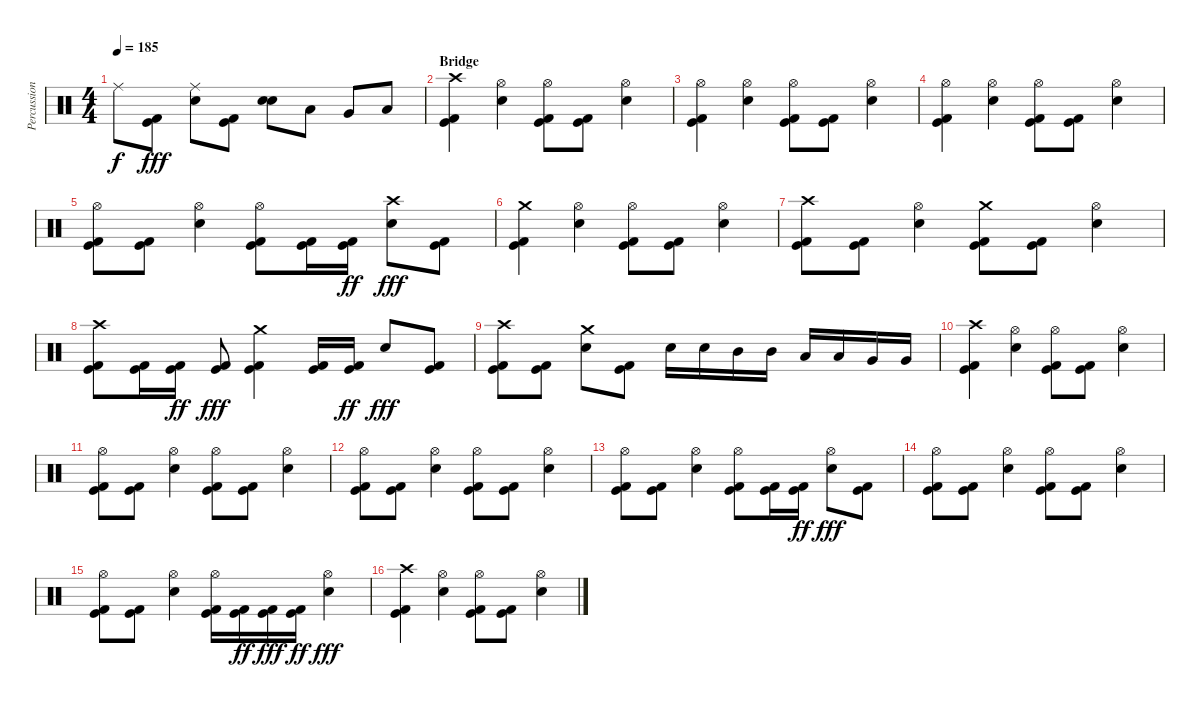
\track ("Percussion" "Percussion") {instrument percussion}
\staff {score}
\articulation defaults
\ts (4 4)
\tempo 185
\clef neutral
\ks c "Ride (middle)".8{dy f}
("Kick (hit)" "Kick (hit) 2").8{dy fff} ("Ride (middle)" "Snare (hit) 2").8 ("Kick (hit)" "Kick (hit) 2").8 ("Snare (hit) 2" "Snare (hit) 2").8{bu 480} "Low Tom (hit)".8 "Very Low Tom (hit)".8 "Low Tom (hit)".8 |
\section ("" "Bridge")
("Crash high (hit)" "Kick (hit)" "Kick (hit) 2").4 ("Hi-Hat (open)" "Snare (hit) 2").4 ("Hi-Hat (open)" "Kick (hit)" "Kick (hit) 2").8 ("Kick (hit)" "Kick (hit) 2").8 ("Hi-Hat (open)" "Snare (hit) 2").4 |
("Hi-Hat (open)" "Kick (hit)" "Kick (hit) 2").4 ("Hi-Hat (open)" "Snare (hit) 2").4 ("Hi-Hat (open)" "Kick (hit)" "Kick (hit) 2").8 ("Kick (hit)" "Kick (hit) 2").8 ("Hi-Hat (open)" "Snare (hit) 2").4 |
("Hi-Hat (open)" "Kick (hit)" "Kick (hit) 2").4 ("Hi-Hat (open)" "Snare (hit) 2").4 ("Hi-Hat (open)" "Kick (hit)" "Kick (hit) 2").8 ("Kick (hit)" "Kick (hit) 2").8 ("Hi-Hat (open)" "Snare (hit) 2").4 |
("Hi-Hat (open)" "Kick (hit)" "Kick (hit) 2").8 ("Kick (hit)" "Kick (hit) 2").8 ("Hi-Hat (open)" "Snare (hit) 2").4 ("Hi-Hat (open)" "Kick (hit)" "Kick (hit) 2").8 ("Kick (hit)" "Kick (hit) 2").16 ("Kick (hit)" "Kick (hit) 2").16{dy ff} ("Crash high (hit)" "Snare (hit) 2").8{dy fff} ("Kick (hit)" "Kick (hit) 2").8 |
("Crash medium (hit)" "Kick (hit)" "Kick (hit) 2").4 ("Hi-Hat (open)" "Snare (hit) 2").4 ("Hi-Hat (open)" "Kick (hit)" "Kick (hit) 2").8 ("Kick (hit)" "Kick (hit) 2").8 ("Hi-Hat (open)" "Snare (hit) 2").4 |
("Crash high (hit)" "Kick (hit)" "Kick (hit) 2").8 ("Kick (hit)" "Kick (hit) 2").8 ("Hi-Hat (open)" "Snare (hit) 2").4 ("Crash medium (hit)" "Kick (hit)" "Kick (hit) 2").8 ("Kick (hit)" "Kick (hit) 2").8 ("Hi-Hat (open)" "Snare (hit) 2").4 |
("Crash high (hit)" "Kick (hit)" "Kick (hit) 2").8 ("Kick (hit)" "Kick (hit) 2").16 ("Kick (hit)" "Kick (hit) 2").16{dy ff} ("Kick (hit)" "Kick (hit) 2").8{dy fff} ("Crash medium (hit)" "Kick (hit)" "Kick (hit) 2").4 ("Kick (hit)" "Kick (hit) 2").16 ("Kick (hit)" "Kick (hit) 2").16{dy ff} "Snare (hit) 2".8{dy fff} ("Kick (hit)" "Kick (hit) 2").8 |
("Crash high (hit)" "Kick (hit)" "Kick (hit) 2").8 ("Kick (hit)" "Kick (hit) 2").8 ("Crash medium (hit)" "Snare (hit) 2").8 ("Kick (hit)" "Kick (hit) 2").8 "Snare (hit) 2".16 "Snare (hit) 2".16 "Mid Tom (hit)".16 "Mid Tom (hit)".16 "Low Tom (hit)".16 "Low Tom (hit)".16 "Very Low Tom (hit)".16 "Very Low Tom (hit)".16 |
("Crash high (hit)" "Kick (hit)" "Kick (hit) 2").4 ("Hi-Hat (open)" "Snare (hit) 2").4 ("Hi-Hat (open)" "Kick (hit)" "Kick (hit) 2").8 ("Kick (hit)" "Kick (hit) 2").8 ("Hi-Hat (open)" "Snare (hit) 2").4 |
("Hi-Hat (open)" "Kick (hit)" "Kick (hit) 2").8 ("Kick (hit)" "Kick (hit) 2").8 ("Hi-Hat (open)" "Snare (hit) 2").4 ("Hi-Hat (open)" "Kick (hit)" "Kick (hit) 2").8 ("Kick (hit)" "Kick (hit) 2").8 ("Hi-Hat (open)" "Snare (hit) 2").4 |
("Hi-Hat (open)" "Kick (hit)" "Kick (hit) 2").8 ("Kick (hit)" "Kick (hit) 2").8 ("Hi-Hat (open)" "Snare (hit) 2").4 ("Hi-Hat (open)" "Kick (hit)" "Kick (hit) 2").8 ("Kick (hit)" "Kick (hit) 2").8 ("Hi-Hat (open)" "Snare (hit) 2").4 |
("Hi-Hat (open)" "Kick (hit)" "Kick (hit) 2").8 ("Kick (hit)" "Kick (hit) 2").8 ("Hi-Hat (open)" "Snare (hit) 2").4 ("Hi-Hat (open)" "Kick (hit)" "Kick (hit) 2").8 ("Kick (hit)" "Kick (hit) 2").16 ("Kick (hit)" "Kick (hit) 2").16{dy ff} ("Hi-Hat (open)" "Snare (hit) 2").8{dy fff} ("Kick (hit)" "Kick (hit) 2").8 |
("Hi-Hat (open)" "Kick (hit)" "Kick (hit) 2").8 ("Kick (hit)" "Kick (hit) 2").8 ("Hi-Hat (open)" "Snare (hit) 2").4 ("Hi-Hat (open)" "Kick (hit)" "Kick (hit) 2").8 ("Kick (hit)" "Kick (hit) 2").8 ("Hi-Hat (open)" "Snare (hit) 2").4 |
("Hi-Hat (open)" "Kick (hit)" "Kick (hit) 2").8 ("Kick (hit)" "Kick (hit) 2").8 ("Hi-Hat (open)" "Snare (hit) 2").4 ("Hi-Hat (open)" "Kick (hit)" "Kick (hit) 2").16 ("Kick (hit)" "Kick (hit) 2").16{dy ff} ("Kick (hit)" "Kick (hit) 2").16{dy fff} ("Kick (hit)" "Kick (hit) 2").16{dy ff} ("Hi-Hat (open)" "Snare (hit) 2").4{dy fff} |
("Crash high (hit)" "Kick (hit)" "Kick (hit) 2").4 ("Hi-Hat (open)" "Snare (hit) 2").4 ("Hi-Hat (open)" "Kick (hit)" "Kick (hit) 2").8 ("Kick (hit)" "Kick (hit) 2").8 ("Hi-Hat (open)" "Snare (hit) 2").4
